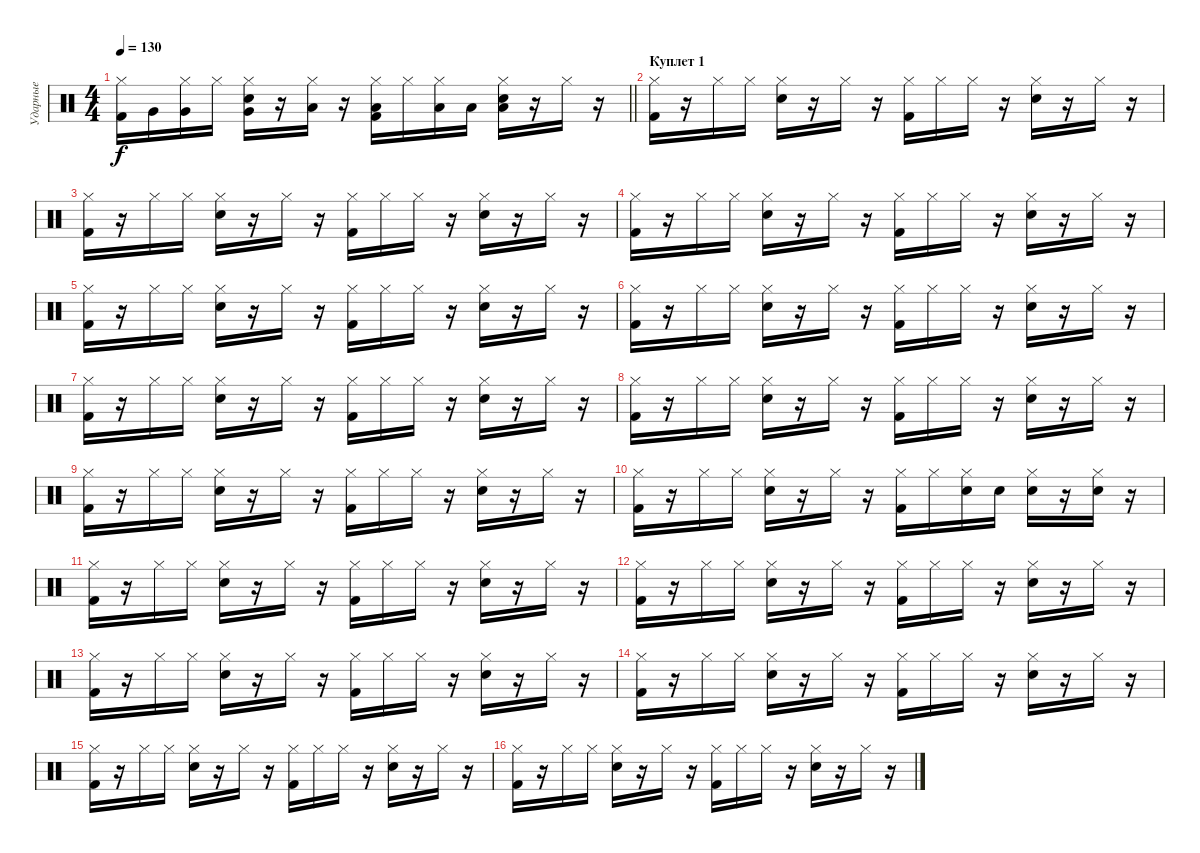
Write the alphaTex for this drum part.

\track ("Ударные" "Ударные") {instrument percussion}
\staff {score}
\articulation defaults
\ts (4 4)
\tempo 130
\clef neutral
\barLineRight lightlight
\ks c
("Kick (hit) 2" "Hi-Hat (closed)").16{dy f} "Very Low Tom (hit)".16 ("Very Low Tom (hit)" "Hi-Hat (closed)").16 "Hi-Hat (closed)".16 ("Snare (hit) 2" "Very Low Tom (hit)" "Hi-Hat (closed)").16 r.16 ("Low Tom (hit)" "Hi-Hat (closed)").16 r.16 ("Kick (hit) 2" "Low Tom (hit)" "Hi-Hat (closed)").16 "Hi-Hat (closed)".16 ("Low Tom (hit)" "Hi-Hat (closed)").16 "Low Tom (hit)".16 ("Snare (hit) 2" "Low Tom (hit)" "Hi-Hat (closed)").16 r.16 "Hi-Hat (closed)".16 r.16 |
\section ("" "Куплет 1")
("Kick (hit) 2" "Hi-Hat (closed)").16 r.16 "Hi-Hat (closed)".16 "Hi-Hat (closed)".16 ("Snare (hit) 2" "Hi-Hat (closed)").16 r.16 "Hi-Hat (closed)".16 r.16 ("Kick (hit) 2" "Hi-Hat (closed)").16 "Hi-Hat (closed)".16 "Hi-Hat (closed)".16 r.16 ("Snare (hit) 2" "Hi-Hat (closed)").16 r.16 "Hi-Hat (closed)".16 r.16 |
("Kick (hit) 2" "Hi-Hat (closed)").16 r.16 "Hi-Hat (closed)".16 "Hi-Hat (closed)".16 ("Snare (hit) 2" "Hi-Hat (closed)").16 r.16 "Hi-Hat (closed)".16 r.16 ("Kick (hit) 2" "Hi-Hat (closed)").16 "Hi-Hat (closed)".16 "Hi-Hat (closed)".16 r.16 ("Snare (hit) 2" "Hi-Hat (closed)").16 r.16 "Hi-Hat (closed)".16 r.16 |
("Kick (hit) 2" "Hi-Hat (closed)").16 r.16 "Hi-Hat (closed)".16 "Hi-Hat (closed)".16 ("Snare (hit) 2" "Hi-Hat (closed)").16 r.16 "Hi-Hat (closed)".16 r.16 ("Kick (hit) 2" "Hi-Hat (closed)").16 "Hi-Hat (closed)".16 "Hi-Hat (closed)".16 r.16 ("Snare (hit) 2" "Hi-Hat (closed)").16 r.16 "Hi-Hat (closed)".16 r.16 |
("Kick (hit) 2" "Hi-Hat (closed)").16 r.16 "Hi-Hat (closed)".16 "Hi-Hat (closed)".16 ("Snare (hit) 2" "Hi-Hat (closed)").16 r.16 "Hi-Hat (closed)".16 r.16 ("Kick (hit) 2" "Hi-Hat (closed)").16 "Hi-Hat (closed)".16 "Hi-Hat (closed)".16 r.16 ("Snare (hit) 2" "Hi-Hat (closed)").16 r.16 "Hi-Hat (closed)".16 r.16 |
("Kick (hit) 2" "Hi-Hat (closed)").16 r.16 "Hi-Hat (closed)".16 "Hi-Hat (closed)".16 ("Snare (hit) 2" "Hi-Hat (closed)").16 r.16 "Hi-Hat (closed)".16 r.16 ("Kick (hit) 2" "Hi-Hat (closed)").16 "Hi-Hat (closed)".16 "Hi-Hat (closed)".16 r.16 ("Snare (hit) 2" "Hi-Hat (closed)").16 r.16 "Hi-Hat (closed)".16 r.16 |
("Kick (hit) 2" "Hi-Hat (closed)").16 r.16 "Hi-Hat (closed)".16 "Hi-Hat (closed)".16 ("Snare (hit) 2" "Hi-Hat (closed)").16 r.16 "Hi-Hat (closed)".16 r.16 ("Kick (hit) 2" "Hi-Hat (closed)").16 "Hi-Hat (closed)".16 "Hi-Hat (closed)".16 r.16 ("Snare (hit) 2" "Hi-Hat (closed)").16 r.16 "Hi-Hat (closed)".16 r.16 |
("Kick (hit) 2" "Hi-Hat (closed)").16 r.16 "Hi-Hat (closed)".16 "Hi-Hat (closed)".16 ("Snare (hit) 2" "Hi-Hat (closed)").16 r.16 "Hi-Hat (closed)".16 r.16 ("Kick (hit) 2" "Hi-Hat (closed)").16 "Hi-Hat (closed)".16 "Hi-Hat (closed)".16 r.16 ("Snare (hit) 2" "Hi-Hat (closed)").16 r.16 "Hi-Hat (closed)".16 r.16 |
("Kick (hit) 2" "Hi-Hat (closed)").16 r.16 "Hi-Hat (closed)".16 "Hi-Hat (closed)".16 ("Snare (hit) 2" "Hi-Hat (closed)").16 r.16 "Hi-Hat (closed)".16 r.16 ("Kick (hit) 2" "Hi-Hat (closed)").16 "Hi-Hat (closed)".16 "Hi-Hat (closed)".16 r.16 ("Snare (hit) 2" "Hi-Hat (closed)").16 r.16 "Hi-Hat (closed)".16 r.16 |
("Kick (hit) 2" "Hi-Hat (closed)").16 r.16 "Hi-Hat (closed)".16 "Hi-Hat (closed)".16 ("Snare (hit) 2" "Hi-Hat (closed)").16 r.16 "Hi-Hat (closed)".16 r.16 ("Kick (hit) 2" "Hi-Hat (closed)").16 "Hi-Hat (closed)".16 ("Snare (hit) 2" "Hi-Hat (closed)").16 "Snare (hit) 2".16 ("Snare (hit) 2" "Hi-Hat (closed)").16 r.16 ("Snare (hit) 2" "Hi-Hat (closed)").16 r.16 |
("Kick (hit) 2" "Hi-Hat (closed)").16 r.16 "Hi-Hat (closed)".16 "Hi-Hat (closed)".16 ("Snare (hit) 2" "Hi-Hat (closed)").16 r.16 "Hi-Hat (closed)".16 r.16 ("Kick (hit) 2" "Hi-Hat (closed)").16 "Hi-Hat (closed)".16 "Hi-Hat (closed)".16 r.16 ("Snare (hit) 2" "Hi-Hat (closed)").16 r.16 "Hi-Hat (closed)".16 r.16 |
("Kick (hit) 2" "Hi-Hat (closed)").16 r.16 "Hi-Hat (closed)".16 "Hi-Hat (closed)".16 ("Snare (hit) 2" "Hi-Hat (closed)").16 r.16 "Hi-Hat (closed)".16 r.16 ("Kick (hit) 2" "Hi-Hat (closed)").16 "Hi-Hat (closed)".16 "Hi-Hat (closed)".16 r.16 ("Snare (hit) 2" "Hi-Hat (closed)").16 r.16 "Hi-Hat (closed)".16 r.16 |
("Kick (hit) 2" "Hi-Hat (closed)").16 r.16 "Hi-Hat (closed)".16 "Hi-Hat (closed)".16 ("Snare (hit) 2" "Hi-Hat (closed)").16 r.16 "Hi-Hat (closed)".16 r.16 ("Kick (hit) 2" "Hi-Hat (closed)").16 "Hi-Hat (closed)".16 "Hi-Hat (closed)".16 r.16 ("Snare (hit) 2" "Hi-Hat (closed)").16 r.16 "Hi-Hat (closed)".16 r.16 |
("Kick (hit) 2" "Hi-Hat (closed)").16 r.16 "Hi-Hat (closed)".16 "Hi-Hat (closed)".16 ("Snare (hit) 2" "Hi-Hat (closed)").16 r.16 "Hi-Hat (closed)".16 r.16 ("Kick (hit) 2" "Hi-Hat (closed)").16 "Hi-Hat (closed)".16 "Hi-Hat (closed)".16 r.16 ("Snare (hit) 2" "Hi-Hat (closed)").16 r.16 "Hi-Hat (closed)".16 r.16 |
("Kick (hit) 2" "Hi-Hat (closed)").16 r.16 "Hi-Hat (closed)".16 "Hi-Hat (closed)".16 ("Snare (hit) 2" "Hi-Hat (closed)").16 r.16 "Hi-Hat (closed)".16 r.16 ("Kick (hit) 2" "Hi-Hat (closed)").16 "Hi-Hat (closed)".16 "Hi-Hat (closed)".16 r.16 ("Snare (hit) 2" "Hi-Hat (closed)").16 r.16 "Hi-Hat (closed)".16 r.16 |
("Kick (hit) 2" "Hi-Hat (closed)").16 r.16 "Hi-Hat (closed)".16 "Hi-Hat (closed)".16 ("Snare (hit) 2" "Hi-Hat (closed)").16 r.16 "Hi-Hat (closed)".16 r.16 ("Kick (hit) 2" "Hi-Hat (closed)").16 "Hi-Hat (closed)".16 "Hi-Hat (closed)".16 r.16 ("Snare (hit) 2" "Hi-Hat (closed)").16 r.16 "Hi-Hat (closed)".16 r.16
